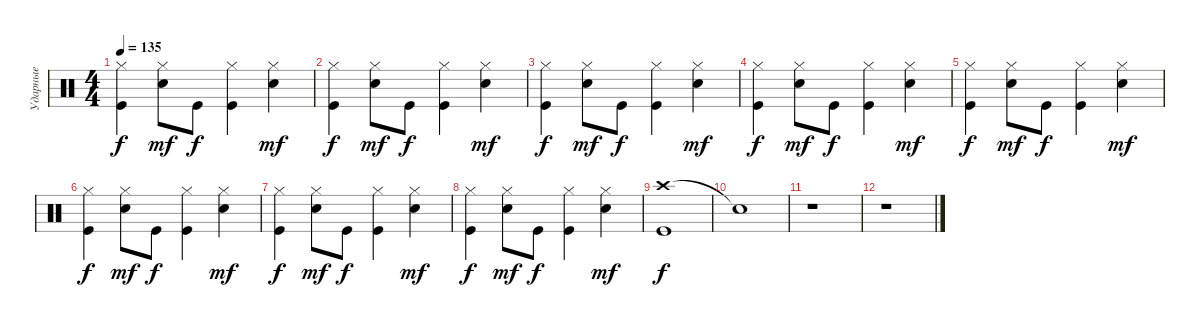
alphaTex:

\track ("Ударные" "Ударные") {instrument percussion}
\staff {score}
\articulation defaults
\ts (4 4)
\tempo 135
\clef neutral
\ks c
("Hi-Hat (closed)" "Kick (hit)").4{dy f volume 14} ("Hi-Hat (closed)" "Electric Snare (hit)").8{dy mf} "Kick (hit)".8{dy f} ("Hi-Hat (closed)" "Kick (hit)").4 ("Hi-Hat (closed)" "Electric Snare (hit)").4{dy mf} |
("Hi-Hat (closed)" "Kick (hit)").4{dy f} ("Hi-Hat (closed)" "Electric Snare (hit)").8{dy mf} "Kick (hit)".8{dy f} ("Hi-Hat (closed)" "Kick (hit)").4 ("Hi-Hat (closed)" "Electric Snare (hit)").4{dy mf} |
("Hi-Hat (closed)" "Kick (hit)").4{dy f} ("Hi-Hat (closed)" "Electric Snare (hit)").8{dy mf} "Kick (hit)".8{dy f} ("Hi-Hat (closed)" "Kick (hit)").4 ("Hi-Hat (closed)" "Electric Snare (hit)").4{dy mf} |
("Hi-Hat (closed)" "Kick (hit)").4{dy f} ("Hi-Hat (closed)" "Electric Snare (hit)").8{dy mf} "Kick (hit)".8{dy f} ("Hi-Hat (closed)" "Kick (hit)").4 ("Hi-Hat (closed)" "Electric Snare (hit)").4{dy mf} |
("Hi-Hat (closed)" "Kick (hit)").4{dy f volume 14} ("Hi-Hat (closed)" "Electric Snare (hit)").8{dy mf} "Kick (hit)".8{dy f} ("Hi-Hat (closed)" "Kick (hit)").4 ("Hi-Hat (closed)" "Electric Snare (hit)").4{dy mf} |
("Hi-Hat (closed)" "Kick (hit)").4{dy f} ("Hi-Hat (closed)" "Electric Snare (hit)").8{dy mf} "Kick (hit)".8{dy f} ("Hi-Hat (closed)" "Kick (hit)").4 ("Hi-Hat (closed)" "Electric Snare (hit)").4{dy mf} |
("Hi-Hat (closed)" "Kick (hit)").4{dy f} ("Hi-Hat (closed)" "Electric Snare (hit)").8{dy mf} "Kick (hit)".8{dy f} ("Hi-Hat (closed)" "Kick (hit)").4 ("Hi-Hat (closed)" "Electric Snare (hit)").4{dy mf} |
("Hi-Hat (closed)" "Kick (hit)").4{dy f} ("Hi-Hat (closed)" "Electric Snare (hit)").8{dy mf} "Kick (hit)".8{dy f} ("Hi-Hat (closed)" "Kick (hit)").4 ("Hi-Hat (closed)" "Electric Snare (hit)").4{dy mf} |
("Crash high (hit)" "Kick (hit)").1{dy f volume 14} |
"Snare (hit)"{t}.1 |
r.1 |
r.1
